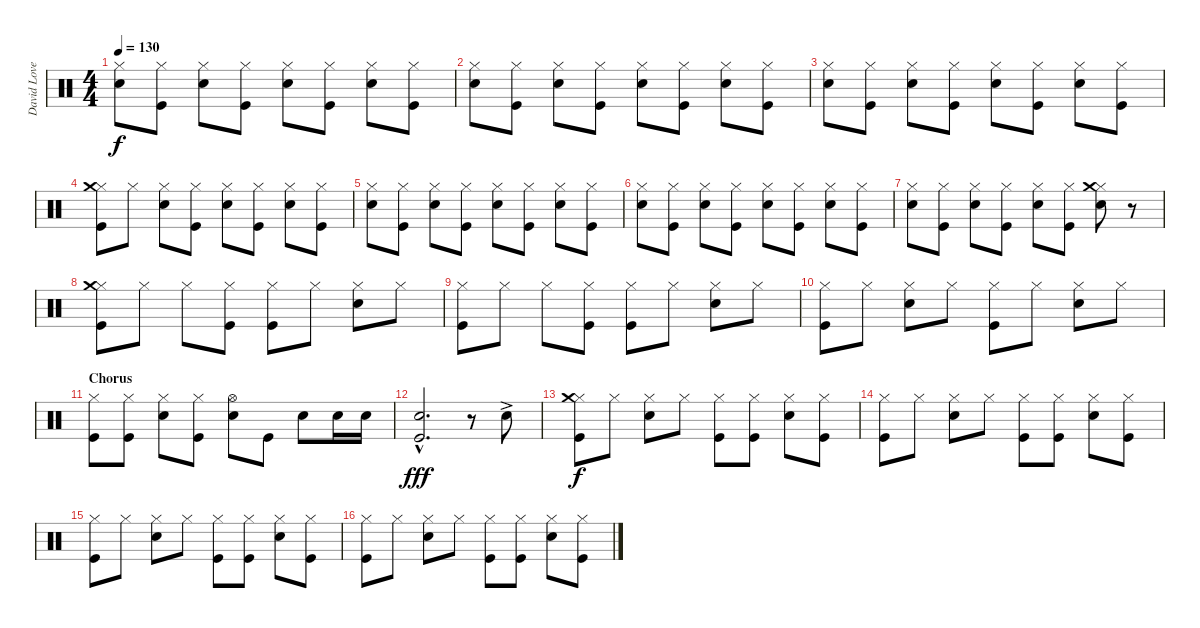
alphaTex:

\track ("David Lovering" "David Love") {instrument percussion}
\staff {score}
\articulation defaults
\ts (4 4)
\tempo 130
\clef neutral
\ks c
("Hi-Hat (closed)" "Snare (hit) 2").8{dy f} ("Hi-Hat (closed)" "Kick (hit)").8 ("Hi-Hat (closed)" "Snare (hit) 2").8 ("Hi-Hat (closed)" "Kick (hit)").8 ("Hi-Hat (closed)" "Snare (hit) 2").8 ("Hi-Hat (closed)" "Kick (hit)").8 ("Hi-Hat (closed)" "Snare (hit) 2").8 ("Hi-Hat (closed)" "Kick (hit)").8 |
("Hi-Hat (closed)" "Snare (hit) 2").8 ("Hi-Hat (closed)" "Kick (hit)").8 ("Hi-Hat (closed)" "Snare (hit) 2").8 ("Hi-Hat (closed)" "Kick (hit)").8 ("Hi-Hat (closed)" "Snare (hit) 2").8 ("Hi-Hat (closed)" "Kick (hit)").8 ("Hi-Hat (closed)" "Snare (hit) 2").8 ("Hi-Hat (closed)" "Kick (hit)").8 |
("Hi-Hat (closed)" "Snare (hit) 2").8 ("Hi-Hat (closed)" "Kick (hit)").8 ("Hi-Hat (closed)" "Snare (hit) 2").8 ("Hi-Hat (closed)" "Kick (hit)").8 ("Hi-Hat (closed)" "Snare (hit) 2").8 ("Hi-Hat (closed)" "Kick (hit)").8 ("Hi-Hat (closed)" "Snare (hit) 2").8 ("Hi-Hat (closed)" "Kick (hit)").8 |
("Hi-Hat (closed)" "Crash medium (hit)" "Kick (hit)").8 "Hi-Hat (closed)".8 ("Hi-Hat (closed)" "Snare (hit) 2").8 ("Hi-Hat (closed)" "Kick (hit)").8 ("Hi-Hat (closed)" "Snare (hit) 2").8 ("Hi-Hat (closed)" "Kick (hit)").8 ("Hi-Hat (closed)" "Snare (hit) 2").8 ("Hi-Hat (closed)" "Kick (hit)").8 |
("Hi-Hat (closed)" "Snare (hit) 2").8 ("Hi-Hat (closed)" "Kick (hit)").8 ("Hi-Hat (closed)" "Snare (hit) 2").8 ("Hi-Hat (closed)" "Kick (hit)").8 ("Hi-Hat (closed)" "Snare (hit) 2").8 ("Hi-Hat (closed)" "Kick (hit)").8 ("Hi-Hat (closed)" "Snare (hit) 2").8 ("Hi-Hat (closed)" "Kick (hit)").8 |
("Hi-Hat (closed)" "Snare (hit) 2").8 ("Hi-Hat (closed)" "Kick (hit)").8 ("Hi-Hat (closed)" "Snare (hit) 2").8 ("Hi-Hat (closed)" "Kick (hit)").8 ("Hi-Hat (closed)" "Snare (hit) 2").8 ("Hi-Hat (closed)" "Kick (hit)").8 ("Hi-Hat (closed)" "Snare (hit) 2").8 ("Hi-Hat (closed)" "Kick (hit)").8 |
("Hi-Hat (closed)" "Snare (hit) 2").8 ("Hi-Hat (closed)" "Kick (hit)").8 ("Hi-Hat (closed)" "Snare (hit) 2").8 ("Hi-Hat (closed)" "Kick (hit)").8 ("Hi-Hat (closed)" "Snare (hit) 2").8 ("Hi-Hat (closed)" "Kick (hit)").8 ("Hi-Hat (closed)" "Crash medium (hit)" "Snare (hit) 2").8 r.8 |
\section ("" "")
("Hi-Hat (closed)" "Crash medium (hit)" "Kick (hit)").8 "Hi-Hat (closed)".8 "Hi-Hat (closed)".8 ("Hi-Hat (closed)" "Kick (hit)").8 ("Hi-Hat (closed)" "Kick (hit)").8 "Hi-Hat (closed)".8 ("Hi-Hat (closed)" "Snare (hit) 2").8 "Hi-Hat (closed)".8 |
("Hi-Hat (closed)" "Kick (hit)").8 "Hi-Hat (closed)".8 "Hi-Hat (closed)".8 ("Hi-Hat (closed)" "Kick (hit)").8 ("Hi-Hat (closed)" "Kick (hit)").8 "Hi-Hat (closed)".8 ("Hi-Hat (closed)" "Snare (hit) 2").8 "Hi-Hat (closed)".8 |
("Hi-Hat (closed)" "Kick (hit)").8 "Hi-Hat (closed)".8 ("Hi-Hat (closed)" "Snare (hit) 2").8 "Hi-Hat (closed)".8 ("Hi-Hat (closed)" "Kick (hit)").8 "Hi-Hat (closed)".8 ("Hi-Hat (closed)" "Snare (hit) 2").8 "Hi-Hat (closed)".8 |
\section ("" "Chorus")
("Hi-Hat (closed)" "Kick (hit)").8 ("Hi-Hat (closed)" "Kick (hit)").8 ("Hi-Hat (closed)" "Snare (hit) 2").8 ("Hi-Hat (closed)" "Kick (hit)").8 ("Hi-Hat (open)" "Snare (hit) 2").8 "Kick (hit)".8 "Snare (hit) 2".8 "Snare (hit) 2".16 "Snare (hit) 2".16 |
("Snare (hit) 2"{hac} "Kick (hit)"{hac}).2{d dy fff} r.8 "Snare (hit) 2"{ac}.8 |
("Hi-Hat (closed)" "Crash medium (hit)" "Kick (hit)").8{dy f} "Hi-Hat (closed)".8 ("Hi-Hat (closed)" "Snare (hit) 2").8 "Hi-Hat (closed)".8 ("Hi-Hat (closed)" "Kick (hit)").8 ("Hi-Hat (closed)" "Kick (hit)").8 ("Hi-Hat (closed)" "Snare (hit) 2").8 ("Hi-Hat (closed)" "Kick (hit)").8 |
("Hi-Hat (closed)" "Kick (hit)").8 "Hi-Hat (closed)".8 ("Hi-Hat (closed)" "Snare (hit) 2").8 "Hi-Hat (closed)".8 ("Hi-Hat (closed)" "Kick (hit)").8 ("Hi-Hat (closed)" "Kick (hit)").8 ("Hi-Hat (closed)" "Snare (hit) 2").8 ("Hi-Hat (closed)" "Kick (hit)").8 |
("Hi-Hat (closed)" "Kick (hit)").8 "Hi-Hat (closed)".8 ("Hi-Hat (closed)" "Snare (hit) 2").8 "Hi-Hat (closed)".8 ("Hi-Hat (closed)" "Kick (hit)").8 ("Hi-Hat (closed)" "Kick (hit)").8 ("Hi-Hat (closed)" "Snare (hit) 2").8 ("Hi-Hat (closed)" "Kick (hit)").8 |
("Hi-Hat (closed)" "Kick (hit)").8 "Hi-Hat (closed)".8 ("Hi-Hat (closed)" "Snare (hit) 2").8 "Hi-Hat (closed)".8 ("Hi-Hat (closed)" "Kick (hit)").8 ("Hi-Hat (closed)" "Kick (hit)").8 ("Hi-Hat (closed)" "Snare (hit) 2").8 ("Hi-Hat (closed)" "Kick (hit)").8
